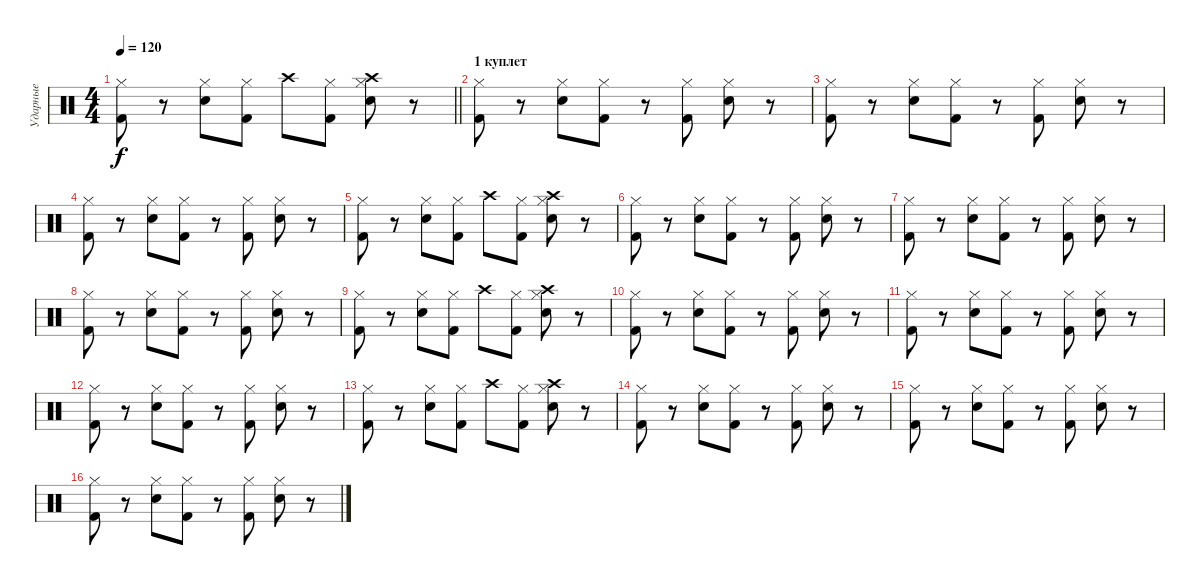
\track ("Ударные" "Ударные") {instrument percussion}
\staff {score}
\articulation defaults
\ts (4 4)
\tempo 120
\clef neutral
\barLineRight lightlight
\ks c
("Kick (hit) 2" "Hi-Hat (closed)").8{dy f} r.8 ("Snare (hit) 2" "Hi-Hat (closed)").8 ("Kick (hit) 2" "Hi-Hat (closed)").8 "Crash high (hit)".8 ("Kick (hit) 2" "Hi-Hat (closed)").8 ("Snare (hit) 2" "Hi-Hat (closed)" "Crash high (hit)").8 r.8 |
\section ("" "1 куплет")
("Kick (hit) 2" "Hi-Hat (closed)").8 r.8 ("Snare (hit) 2" "Hi-Hat (closed)").8 ("Kick (hit) 2" "Hi-Hat (closed)").8 r.8 ("Kick (hit) 2" "Hi-Hat (closed)").8 ("Snare (hit) 2" "Hi-Hat (closed)").8 r.8 |
("Kick (hit) 2" "Hi-Hat (closed)").8 r.8 ("Snare (hit) 2" "Hi-Hat (closed)").8 ("Kick (hit) 2" "Hi-Hat (closed)").8 r.8 ("Kick (hit) 2" "Hi-Hat (closed)").8 ("Snare (hit) 2" "Hi-Hat (closed)").8 r.8 |
("Kick (hit) 2" "Hi-Hat (closed)").8 r.8 ("Snare (hit) 2" "Hi-Hat (closed)").8 ("Kick (hit) 2" "Hi-Hat (closed)").8 r.8 ("Kick (hit) 2" "Hi-Hat (closed)").8 ("Snare (hit) 2" "Hi-Hat (closed)").8 r.8 |
("Kick (hit) 2" "Hi-Hat (closed)").8 r.8 ("Snare (hit) 2" "Hi-Hat (closed)").8 ("Kick (hit) 2" "Hi-Hat (closed)").8 "Crash high (hit)".8 ("Kick (hit) 2" "Hi-Hat (closed)").8 ("Snare (hit) 2" "Hi-Hat (closed)" "Crash high (hit)").8 r.8 |
("Kick (hit) 2" "Hi-Hat (closed)").8 r.8 ("Snare (hit) 2" "Hi-Hat (closed)").8 ("Kick (hit) 2" "Hi-Hat (closed)").8 r.8 ("Kick (hit) 2" "Hi-Hat (closed)").8 ("Snare (hit) 2" "Hi-Hat (closed)").8 r.8 |
("Kick (hit) 2" "Hi-Hat (closed)").8 r.8 ("Snare (hit) 2" "Hi-Hat (closed)").8 ("Kick (hit) 2" "Hi-Hat (closed)").8 r.8 ("Kick (hit) 2" "Hi-Hat (closed)").8 ("Snare (hit) 2" "Hi-Hat (closed)").8 r.8 |
("Kick (hit) 2" "Hi-Hat (closed)").8 r.8 ("Snare (hit) 2" "Hi-Hat (closed)").8 ("Kick (hit) 2" "Hi-Hat (closed)").8 r.8 ("Kick (hit) 2" "Hi-Hat (closed)").8 ("Snare (hit) 2" "Hi-Hat (closed)").8 r.8 |
("Kick (hit) 2" "Hi-Hat (closed)").8 r.8 ("Snare (hit) 2" "Hi-Hat (closed)").8 ("Kick (hit) 2" "Hi-Hat (closed)").8 "Crash high (hit)".8 ("Kick (hit) 2" "Hi-Hat (closed)").8 ("Snare (hit) 2" "Hi-Hat (closed)" "Crash high (hit)").8 r.8 |
("Kick (hit) 2" "Hi-Hat (closed)").8 r.8 ("Snare (hit) 2" "Hi-Hat (closed)").8 ("Kick (hit) 2" "Hi-Hat (closed)").8 r.8 ("Kick (hit) 2" "Hi-Hat (closed)").8 ("Snare (hit) 2" "Hi-Hat (closed)").8 r.8 |
("Kick (hit) 2" "Hi-Hat (closed)").8 r.8 ("Snare (hit) 2" "Hi-Hat (closed)").8 ("Kick (hit) 2" "Hi-Hat (closed)").8 r.8 ("Kick (hit) 2" "Hi-Hat (closed)").8 ("Snare (hit) 2" "Hi-Hat (closed)").8 r.8 |
("Kick (hit) 2" "Hi-Hat (closed)").8 r.8 ("Snare (hit) 2" "Hi-Hat (closed)").8 ("Kick (hit) 2" "Hi-Hat (closed)").8 r.8 ("Kick (hit) 2" "Hi-Hat (closed)").8 ("Snare (hit) 2" "Hi-Hat (closed)").8 r.8 |
("Kick (hit) 2" "Hi-Hat (closed)").8 r.8 ("Snare (hit) 2" "Hi-Hat (closed)").8 ("Kick (hit) 2" "Hi-Hat (closed)").8 "Crash high (hit)".8 ("Kick (hit) 2" "Hi-Hat (closed)").8 ("Snare (hit) 2" "Hi-Hat (closed)" "Crash high (hit)").8 r.8 |
("Kick (hit) 2" "Hi-Hat (closed)").8 r.8 ("Snare (hit) 2" "Hi-Hat (closed)").8 ("Kick (hit) 2" "Hi-Hat (closed)").8 r.8 ("Kick (hit) 2" "Hi-Hat (closed)").8 ("Snare (hit) 2" "Hi-Hat (closed)").8 r.8 |
("Kick (hit) 2" "Hi-Hat (closed)").8 r.8 ("Snare (hit) 2" "Hi-Hat (closed)").8 ("Kick (hit) 2" "Hi-Hat (closed)").8 r.8 ("Kick (hit) 2" "Hi-Hat (closed)").8 ("Snare (hit) 2" "Hi-Hat (closed)").8 r.8 |
("Kick (hit) 2" "Hi-Hat (closed)").8 r.8 ("Snare (hit) 2" "Hi-Hat (closed)").8 ("Kick (hit) 2" "Hi-Hat (closed)").8 r.8 ("Kick (hit) 2" "Hi-Hat (closed)").8 ("Snare (hit) 2" "Hi-Hat (closed)").8 r.8
